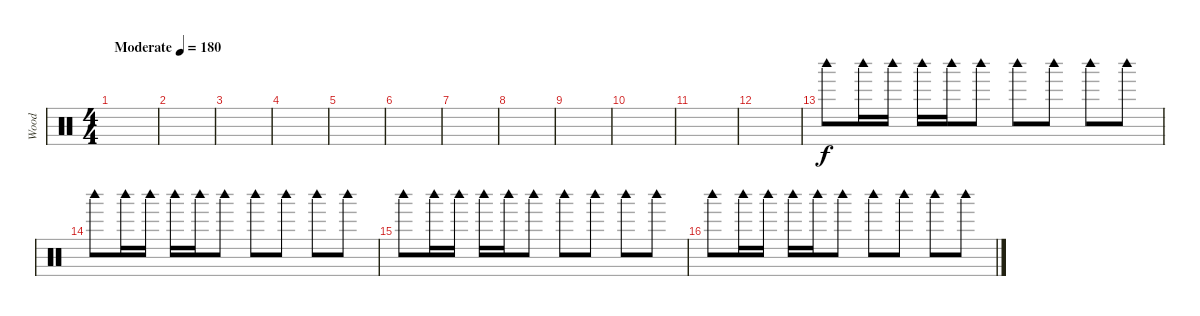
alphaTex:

\track ("Wood" "Wood") {instrument percussion}
\staff {score}
\articulation defaults
\ts (4 4)
\tempo (180 "Moderate")
\clef neutral
\ks c
|
|
|
|
|
|
|
|
|
|
|
|
"Woodblock high (hit)".8 "Woodblock high (hit)".16 "Woodblock high (hit)".16 "Woodblock high (hit)".16 "Woodblock high (hit)".16 "Woodblock high (hit)".8 "Woodblock high (hit)".8 "Woodblock high (hit)".8 "Woodblock high (hit)".8 "Woodblock high (hit)".8 |
"Woodblock high (hit)".8 "Woodblock high (hit)".16 "Woodblock high (hit)".16 "Woodblock high (hit)".16 "Woodblock high (hit)".16 "Woodblock high (hit)".8 "Woodblock high (hit)".8 "Woodblock high (hit)".8 "Woodblock high (hit)".8 "Woodblock high (hit)".8 |
"Woodblock high (hit)".8 "Woodblock high (hit)".16 "Woodblock high (hit)".16 "Woodblock high (hit)".16 "Woodblock high (hit)".16 "Woodblock high (hit)".8 "Woodblock high (hit)".8 "Woodblock high (hit)".8 "Woodblock high (hit)".8 "Woodblock high (hit)".8 |
"Woodblock high (hit)".8 "Woodblock high (hit)".16 "Woodblock high (hit)".16 "Woodblock high (hit)".16 "Woodblock high (hit)".16 "Woodblock high (hit)".8 "Woodblock high (hit)".8 "Woodblock high (hit)".8 "Woodblock high (hit)".8 "Woodblock high (hit)".8
